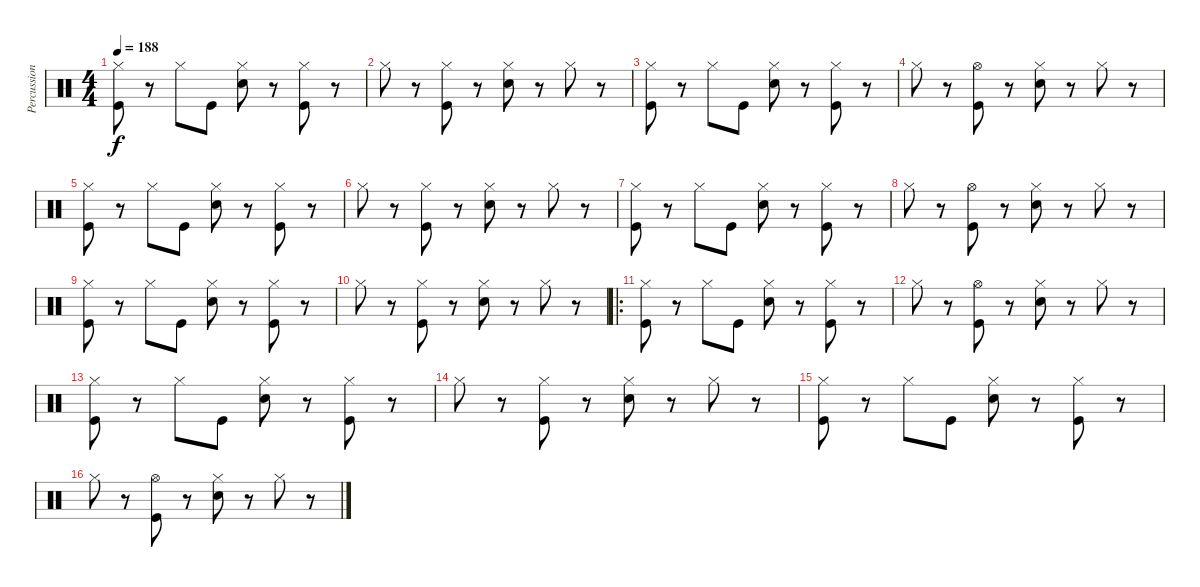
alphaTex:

\track ("Percussioni" "Percussion") {instrument percussion}
\staff {score}
\articulation defaults
\ts (4 4)
\tempo 188
\clef neutral
\ks c
("Hi-Hat (closed)" "Kick (hit)").8{dy f volume 11} r.8 "Hi-Hat (closed)".8 "Kick (hit)".8 ("Hi-Hat (closed)" "Snare (hit) 2").8 r.8 ("Hi-Hat (closed)" "Kick (hit)").8 r.8 |
"Hi-Hat (closed)".8 r.8 ("Hi-Hat (closed)" "Kick (hit)").8 r.8 ("Hi-Hat (closed)" "Snare (hit) 2").8 r.8 "Hi-Hat (closed)".8 r.8 |
("Hi-Hat (closed)" "Kick (hit)").8 r.8 "Hi-Hat (closed)".8 "Kick (hit)".8 ("Hi-Hat (closed)" "Snare (hit) 2").8 r.8 ("Hi-Hat (closed)" "Kick (hit)").8 r.8 |
"Hi-Hat (closed)".8 r.8 ("Hi-Hat (open)" "Kick (hit)").8 r.8 ("Hi-Hat (closed)" "Snare (hit) 2").8 r.8 "Hi-Hat (closed)".8 r.8 |
("Hi-Hat (closed)" "Kick (hit)").8 r.8 "Hi-Hat (closed)".8 "Kick (hit)".8 ("Hi-Hat (closed)" "Snare (hit) 2").8 r.8 ("Hi-Hat (closed)" "Kick (hit)").8 r.8 |
"Hi-Hat (closed)".8 r.8 ("Hi-Hat (closed)" "Kick (hit)").8 r.8 ("Hi-Hat (closed)" "Snare (hit) 2").8 r.8 "Hi-Hat (closed)".8 r.8 |
("Hi-Hat (closed)" "Kick (hit)").8 r.8 "Hi-Hat (closed)".8 "Kick (hit)".8 ("Hi-Hat (closed)" "Snare (hit) 2").8 r.8 ("Hi-Hat (closed)" "Kick (hit)").8 r.8 |
"Hi-Hat (closed)".8 r.8 ("Hi-Hat (open)" "Kick (hit)").8 r.8 ("Hi-Hat (closed)" "Snare (hit) 2").8 r.8 "Hi-Hat (closed)".8 r.8 |
("Hi-Hat (closed)" "Kick (hit)").8 r.8 "Hi-Hat (closed)".8 "Kick (hit)".8 ("Hi-Hat (closed)" "Snare (hit) 2").8 r.8 ("Hi-Hat (closed)" "Kick (hit)").8 r.8 |
"Hi-Hat (closed)".8 r.8 ("Hi-Hat (closed)" "Kick (hit)").8 r.8 ("Hi-Hat (closed)" "Snare (hit) 2").8 r.8 "Hi-Hat (closed)".8 r.8 |
\ro
("Hi-Hat (closed)" "Kick (hit)").8 r.8 "Hi-Hat (closed)".8 "Kick (hit)".8 ("Hi-Hat (closed)" "Snare (hit) 2").8 r.8 ("Hi-Hat (closed)" "Kick (hit)").8 r.8 |
"Hi-Hat (closed)".8 r.8 ("Hi-Hat (open)" "Kick (hit)").8 r.8 ("Hi-Hat (closed)" "Snare (hit) 2").8 r.8 "Hi-Hat (closed)".8 r.8 |
("Hi-Hat (closed)" "Kick (hit)").8 r.8 "Hi-Hat (closed)".8 "Kick (hit)".8 ("Hi-Hat (closed)" "Snare (hit) 2").8 r.8 ("Hi-Hat (closed)" "Kick (hit)").8 r.8 |
"Hi-Hat (closed)".8 r.8 ("Hi-Hat (closed)" "Kick (hit)").8 r.8 ("Hi-Hat (closed)" "Snare (hit) 2").8 r.8 "Hi-Hat (closed)".8 r.8 |
("Hi-Hat (closed)" "Kick (hit)").8 r.8 "Hi-Hat (closed)".8 "Kick (hit)".8 ("Hi-Hat (closed)" "Snare (hit) 2").8 r.8 ("Hi-Hat (closed)" "Kick (hit)").8 r.8 |
"Hi-Hat (closed)".8 r.8 ("Hi-Hat (open)" "Kick (hit)").8 r.8 ("Hi-Hat (closed)" "Snare (hit) 2").8 r.8 "Hi-Hat (closed)".8 r.8
